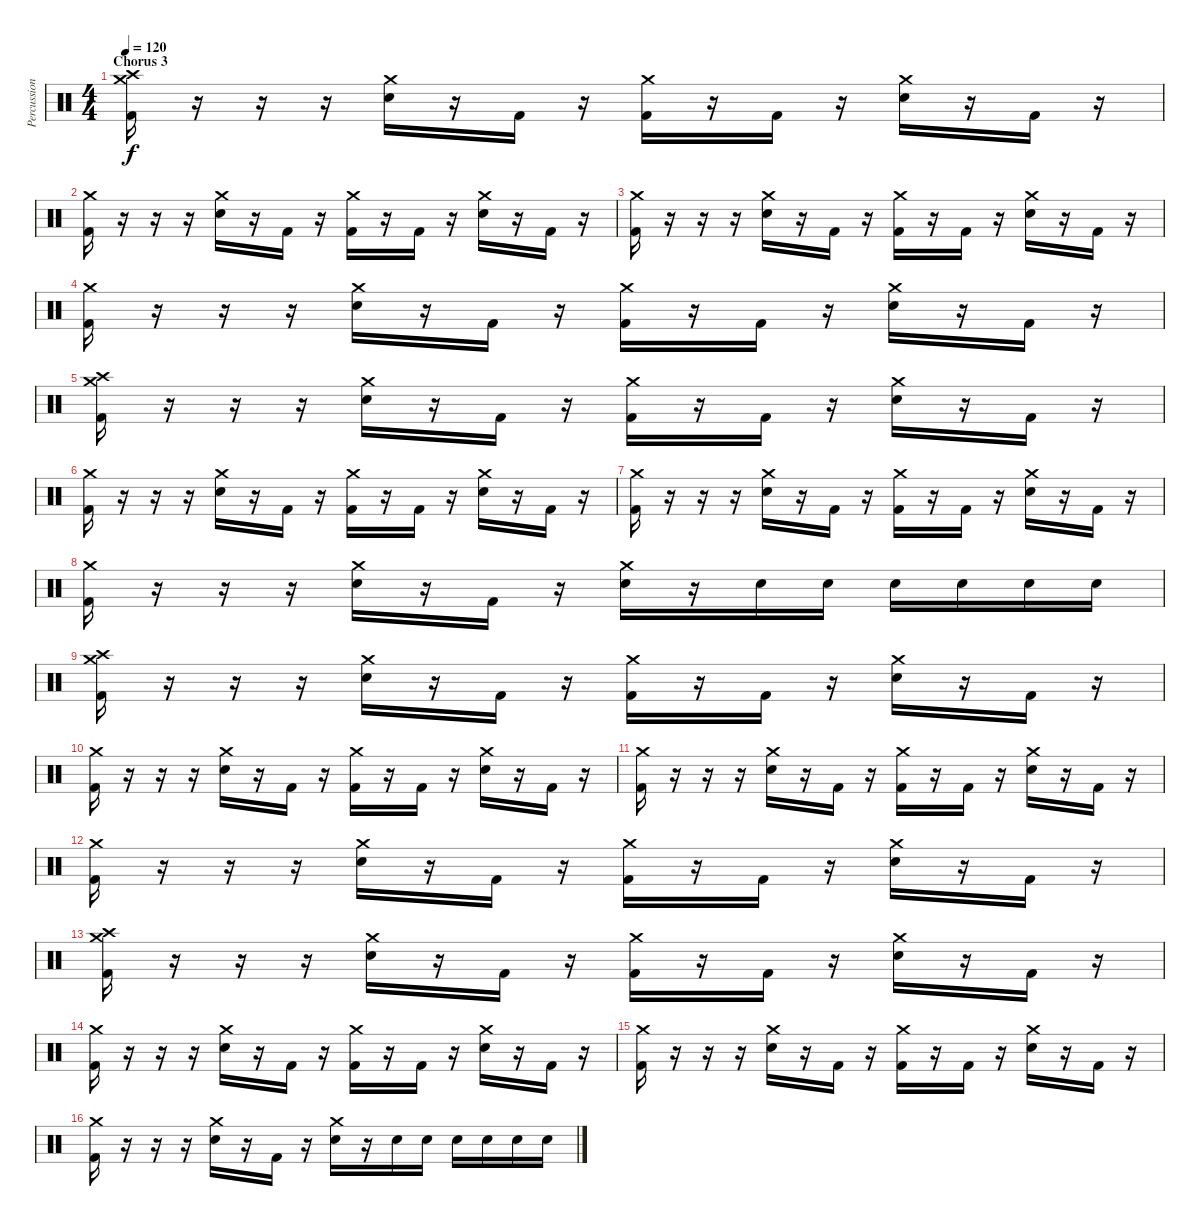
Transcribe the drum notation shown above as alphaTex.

\track ("Percussion" "Percussion") {instrument percussion}
\staff {score}
\articulation defaults
\ts (4 4)
\section ("" "Chorus 3")
\tempo 120
\clef neutral
\ks c
("Kick (hit) 2" "Crash medium (hit)" "Crash high (hit)").16{dy f} r.16 r.16 r.16 ("Snare (hit) 2" "Crash medium (hit)").16 r.16 "Kick (hit) 2".16 r.16 ("Kick (hit) 2" "Crash medium (hit)").16 r.16 "Kick (hit) 2".16 r.16 ("Snare (hit) 2" "Crash medium (hit)").16 r.16 "Kick (hit) 2".16 r.16 |
("Kick (hit) 2" "Crash medium (hit)").16 r.16 r.16 r.16 ("Snare (hit) 2" "Crash medium (hit)").16 r.16 "Kick (hit) 2".16 r.16 ("Kick (hit) 2" "Crash medium (hit)").16 r.16 "Kick (hit) 2".16 r.16 ("Snare (hit) 2" "Crash medium (hit)").16 r.16 "Kick (hit) 2".16 r.16 |
("Kick (hit) 2" "Crash medium (hit)").16 r.16 r.16 r.16 ("Snare (hit) 2" "Crash medium (hit)").16 r.16 "Kick (hit) 2".16 r.16 ("Kick (hit) 2" "Crash medium (hit)").16 r.16 "Kick (hit) 2".16 r.16 ("Snare (hit) 2" "Crash medium (hit)").16 r.16 "Kick (hit) 2".16 r.16 |
("Kick (hit) 2" "Crash medium (hit)").16 r.16 r.16 r.16 ("Snare (hit) 2" "Crash medium (hit)").16 r.16 "Kick (hit) 2".16 r.16 ("Kick (hit) 2" "Crash medium (hit)").16 r.16 "Kick (hit) 2".16 r.16 ("Snare (hit) 2" "Crash medium (hit)").16 r.16 "Kick (hit) 2".16 r.16 |
("Kick (hit) 2" "Crash medium (hit)" "Crash high (hit)").16 r.16 r.16 r.16 ("Snare (hit) 2" "Crash medium (hit)").16 r.16 "Kick (hit) 2".16 r.16 ("Kick (hit) 2" "Crash medium (hit)").16 r.16 "Kick (hit) 2".16 r.16 ("Snare (hit) 2" "Crash medium (hit)").16 r.16 "Kick (hit) 2".16 r.16 |
("Kick (hit) 2" "Crash medium (hit)").16 r.16 r.16 r.16 ("Snare (hit) 2" "Crash medium (hit)").16 r.16 "Kick (hit) 2".16 r.16 ("Kick (hit) 2" "Crash medium (hit)").16 r.16 "Kick (hit) 2".16 r.16 ("Snare (hit) 2" "Crash medium (hit)").16 r.16 "Kick (hit) 2".16 r.16 |
("Kick (hit) 2" "Crash medium (hit)").16 r.16 r.16 r.16 ("Snare (hit) 2" "Crash medium (hit)").16 r.16 "Kick (hit) 2".16 r.16 ("Kick (hit) 2" "Crash medium (hit)").16 r.16 "Kick (hit) 2".16 r.16 ("Snare (hit) 2" "Crash medium (hit)").16 r.16 "Kick (hit) 2".16 r.16 |
("Kick (hit) 2" "Crash medium (hit)").16 r.16 r.16 r.16 ("Snare (hit) 2" "Crash medium (hit)").16 r.16 "Kick (hit) 2".16 r.16 ("Snare (hit) 2" "Crash medium (hit)").16 r.16 "Snare (hit) 2".16 "Snare (hit) 2".16 "Snare (hit) 2".16 "Snare (hit) 2".16 "Snare (hit) 2".16 "Snare (hit) 2".16 |
("Kick (hit) 2" "Crash medium (hit)" "Crash high (hit)").16 r.16 r.16 r.16 ("Snare (hit) 2" "Crash medium (hit)").16 r.16 "Kick (hit) 2".16 r.16 ("Kick (hit) 2" "Crash medium (hit)").16 r.16 "Kick (hit) 2".16 r.16 ("Snare (hit) 2" "Crash medium (hit)").16 r.16 "Kick (hit) 2".16 r.16 |
("Kick (hit) 2" "Crash medium (hit)").16 r.16 r.16 r.16 ("Snare (hit) 2" "Crash medium (hit)").16 r.16 "Kick (hit) 2".16 r.16 ("Kick (hit) 2" "Crash medium (hit)").16 r.16 "Kick (hit) 2".16 r.16 ("Snare (hit) 2" "Crash medium (hit)").16 r.16 "Kick (hit) 2".16 r.16 |
("Kick (hit) 2" "Crash medium (hit)").16 r.16 r.16 r.16 ("Snare (hit) 2" "Crash medium (hit)").16 r.16 "Kick (hit) 2".16 r.16 ("Kick (hit) 2" "Crash medium (hit)").16 r.16 "Kick (hit) 2".16 r.16 ("Snare (hit) 2" "Crash medium (hit)").16 r.16 "Kick (hit) 2".16 r.16 |
("Kick (hit) 2" "Crash medium (hit)").16 r.16 r.16 r.16 ("Snare (hit) 2" "Crash medium (hit)").16 r.16 "Kick (hit) 2".16 r.16 ("Kick (hit) 2" "Crash medium (hit)").16 r.16 "Kick (hit) 2".16 r.16 ("Snare (hit) 2" "Crash medium (hit)").16 r.16 "Kick (hit) 2".16 r.16 |
("Kick (hit) 2" "Crash medium (hit)" "Crash high (hit)").16 r.16 r.16 r.16 ("Snare (hit) 2" "Crash medium (hit)").16 r.16 "Kick (hit) 2".16 r.16 ("Kick (hit) 2" "Crash medium (hit)").16 r.16 "Kick (hit) 2".16 r.16 ("Snare (hit) 2" "Crash medium (hit)").16 r.16 "Kick (hit) 2".16 r.16 |
("Kick (hit) 2" "Crash medium (hit)").16 r.16 r.16 r.16 ("Snare (hit) 2" "Crash medium (hit)").16 r.16 "Kick (hit) 2".16 r.16 ("Kick (hit) 2" "Crash medium (hit)").16 r.16 "Kick (hit) 2".16 r.16 ("Snare (hit) 2" "Crash medium (hit)").16 r.16 "Kick (hit) 2".16 r.16 |
("Kick (hit) 2" "Crash medium (hit)").16 r.16 r.16 r.16 ("Snare (hit) 2" "Crash medium (hit)").16 r.16 "Kick (hit) 2".16 r.16 ("Kick (hit) 2" "Crash medium (hit)").16 r.16 "Kick (hit) 2".16 r.16 ("Snare (hit) 2" "Crash medium (hit)").16 r.16 "Kick (hit) 2".16 r.16 |
("Kick (hit) 2" "Crash medium (hit)").16 r.16 r.16 r.16 ("Snare (hit) 2" "Crash medium (hit)").16 r.16 "Kick (hit) 2".16 r.16 ("Snare (hit) 2" "Crash medium (hit)").16 r.16 "Snare (hit) 2".16 "Snare (hit) 2".16 "Snare (hit) 2".16 "Snare (hit) 2".16 "Snare (hit) 2".16 "Snare (hit) 2".16
